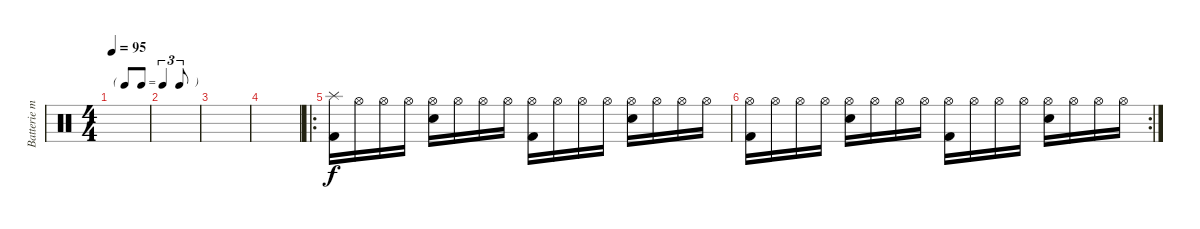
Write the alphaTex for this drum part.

\track ("Batterie medium" "Batterie m") {instrument percussion}
\staff {score}
\articulation defaults
\ts (4 4)
\tf triplet8th
\tempo 95
\clef neutral
\ks c
|
|
|
|
\ro
("Splash (hit)" "Kick (hit) 2").16{balance 8} "Hi-Hat (open)".16 "Hi-Hat (open)".16 "Hi-Hat (open)".16 ("Electric Snare (hit)" "Hi-Hat (open)").16 "Hi-Hat (open)".16 "Hi-Hat (open)".16 "Hi-Hat (open)".16 ("Hi-Hat (open)" "Kick (hit) 2").16 "Hi-Hat (open)".16 "Hi-Hat (open)".16 "Hi-Hat (open)".16 ("Electric Snare (hit)" "Hi-Hat (open)").16 "Hi-Hat (open)".16 "Hi-Hat (open)".16 "Hi-Hat (open)".16 |
\rc 2
("Hi-Hat (open)" "Kick (hit) 2").16 "Hi-Hat (open)".16 "Hi-Hat (open)".16 "Hi-Hat (open)".16 ("Electric Snare (hit)" "Hi-Hat (open)").16 "Hi-Hat (open)".16 "Hi-Hat (open)".16 "Hi-Hat (open)".16 ("Hi-Hat (open)" "Kick (hit) 2").16 "Hi-Hat (open)".16 "Hi-Hat (open)".16 "Hi-Hat (open)".16 ("Electric Snare (hit)" "Hi-Hat (open)").16 "Hi-Hat (open)".16 "Hi-Hat (open)".16 "Hi-Hat (open)".16
